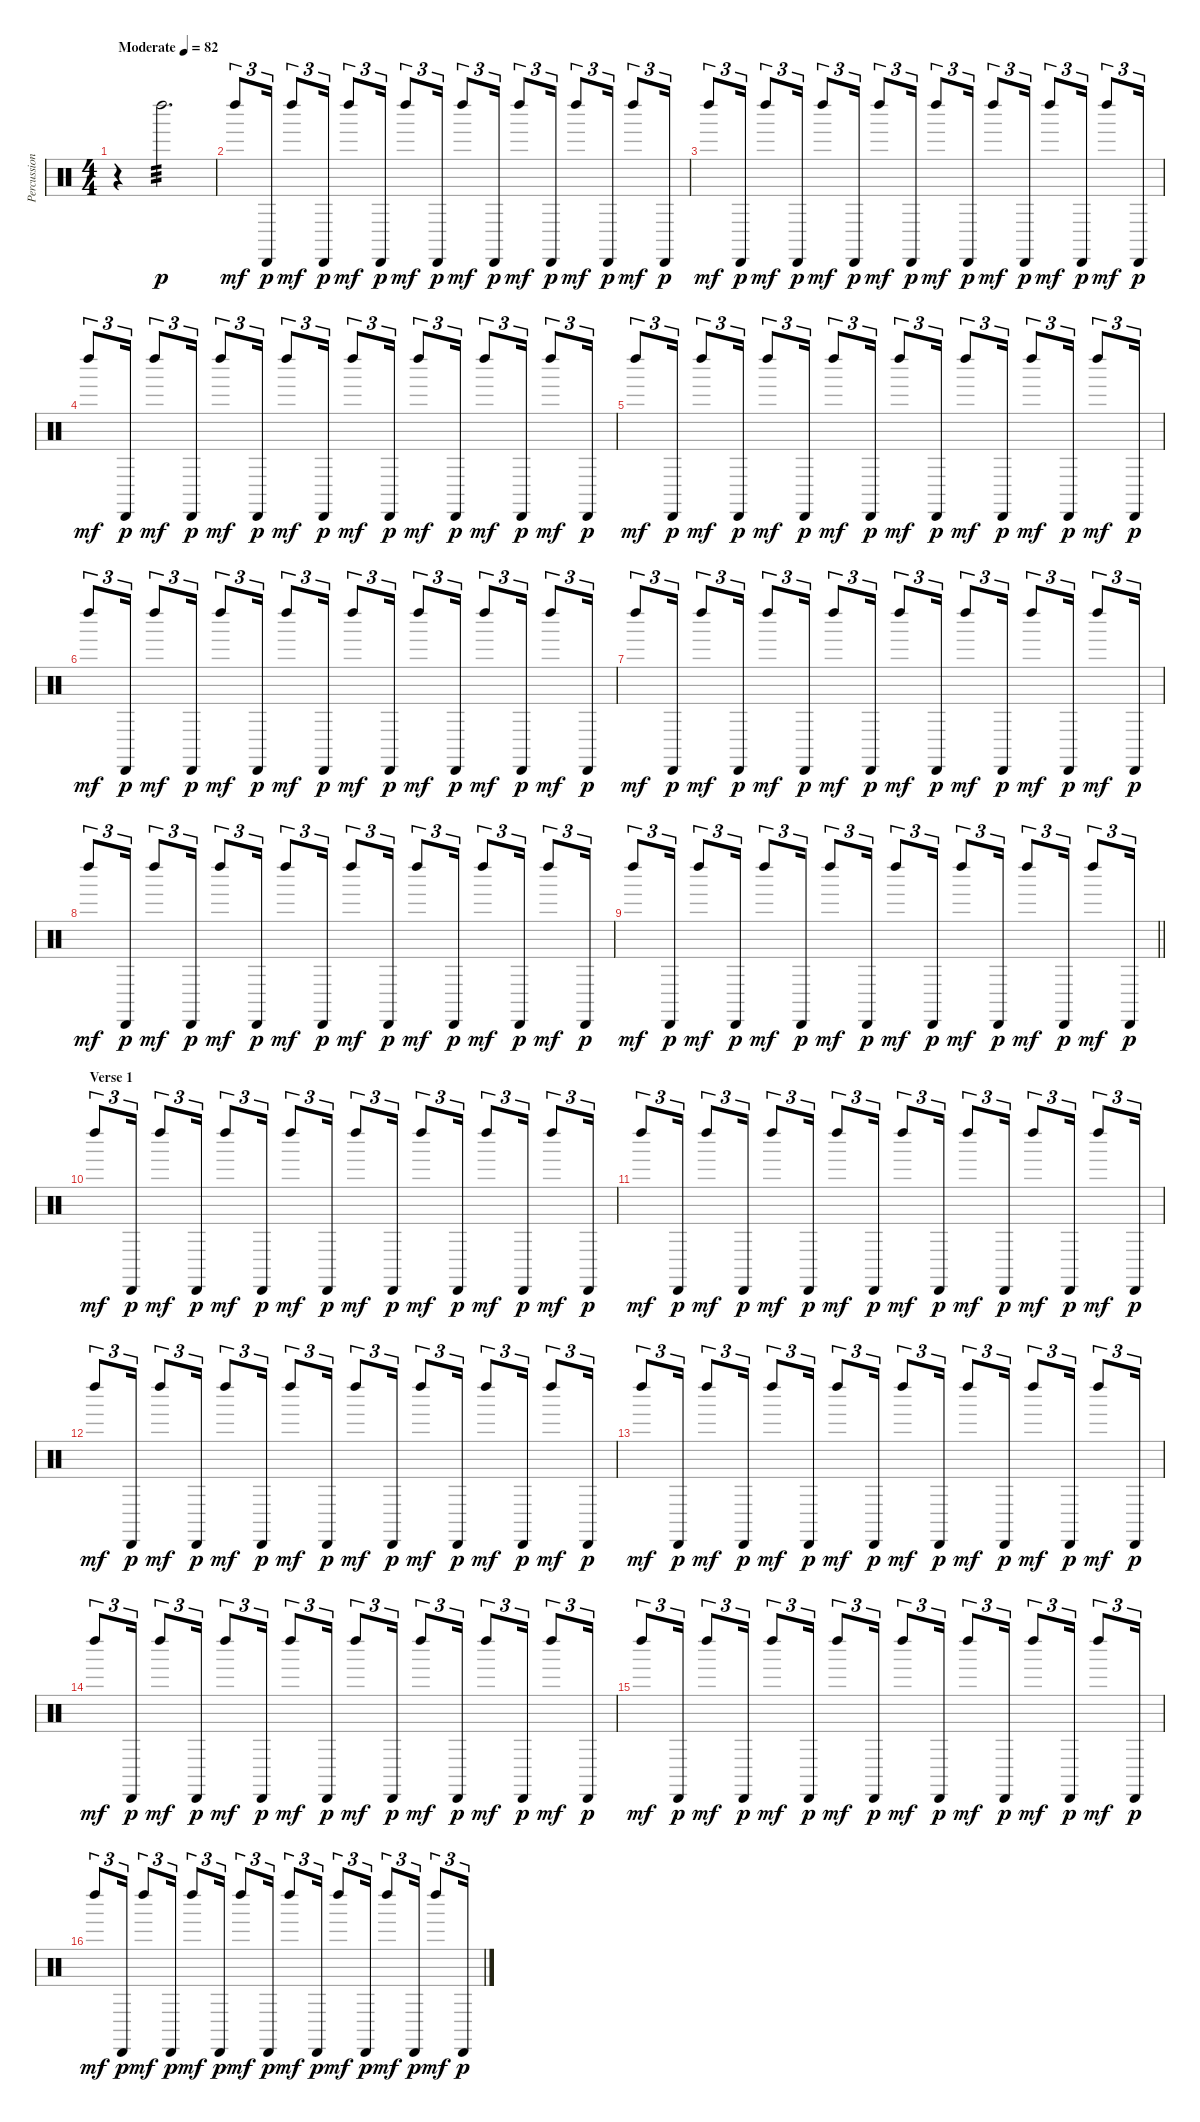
\track ("Percussion" "Percussion") {instrument percussion}
\staff {score}
\articulation defaults
\ts (4 4)
\tempo (82 "Moderate")
\clef neutral
\ks c
r.4{dy p volume 0} "Left Maraca (hit)".2{d tp 3 volume 16} |
"Left Maraca (hit)".8{tu (3 2) dy mf} "Cabasa (hit)".16{tu (3 2) dy p} "Left Maraca (hit)".8{tu (3 2) dy mf} "Cabasa (hit)".16{tu (3 2) dy p} "Left Maraca (hit)".8{tu (3 2) dy mf} "Cabasa (hit)".16{tu (3 2) dy p} "Left Maraca (hit)".8{tu (3 2) dy mf} "Cabasa (hit)".16{tu (3 2) dy p} "Left Maraca (hit)".8{tu (3 2) dy mf} "Cabasa (hit)".16{tu (3 2) dy p} "Left Maraca (hit)".8{tu (3 2) dy mf} "Cabasa (hit)".16{tu (3 2) dy p} "Left Maraca (hit)".8{tu (3 2) dy mf} "Cabasa (hit)".16{tu (3 2) dy p} "Left Maraca (hit)".8{tu (3 2) dy mf} "Cabasa (hit)".16{tu (3 2) dy p} |
"Left Maraca (hit)".8{tu (3 2) dy mf} "Cabasa (hit)".16{tu (3 2) dy p} "Left Maraca (hit)".8{tu (3 2) dy mf} "Cabasa (hit)".16{tu (3 2) dy p} "Left Maraca (hit)".8{tu (3 2) dy mf} "Cabasa (hit)".16{tu (3 2) dy p} "Left Maraca (hit)".8{tu (3 2) dy mf} "Cabasa (hit)".16{tu (3 2) dy p} "Left Maraca (hit)".8{tu (3 2) dy mf} "Cabasa (hit)".16{tu (3 2) dy p} "Left Maraca (hit)".8{tu (3 2) dy mf} "Cabasa (hit)".16{tu (3 2) dy p} "Left Maraca (hit)".8{tu (3 2) dy mf} "Cabasa (hit)".16{tu (3 2) dy p} "Left Maraca (hit)".8{tu (3 2) dy mf} "Cabasa (hit)".16{tu (3 2) dy p} |
"Left Maraca (hit)".8{tu (3 2) dy mf} "Cabasa (hit)".16{tu (3 2) dy p} "Left Maraca (hit)".8{tu (3 2) dy mf} "Cabasa (hit)".16{tu (3 2) dy p} "Left Maraca (hit)".8{tu (3 2) dy mf} "Cabasa (hit)".16{tu (3 2) dy p} "Left Maraca (hit)".8{tu (3 2) dy mf} "Cabasa (hit)".16{tu (3 2) dy p} "Left Maraca (hit)".8{tu (3 2) dy mf} "Cabasa (hit)".16{tu (3 2) dy p} "Left Maraca (hit)".8{tu (3 2) dy mf} "Cabasa (hit)".16{tu (3 2) dy p} "Left Maraca (hit)".8{tu (3 2) dy mf} "Cabasa (hit)".16{tu (3 2) dy p} "Left Maraca (hit)".8{tu (3 2) dy mf} "Cabasa (hit)".16{tu (3 2) dy p} |
"Left Maraca (hit)".8{tu (3 2) dy mf} "Cabasa (hit)".16{tu (3 2) dy p} "Left Maraca (hit)".8{tu (3 2) dy mf} "Cabasa (hit)".16{tu (3 2) dy p} "Left Maraca (hit)".8{tu (3 2) dy mf} "Cabasa (hit)".16{tu (3 2) dy p} "Left Maraca (hit)".8{tu (3 2) dy mf} "Cabasa (hit)".16{tu (3 2) dy p} "Left Maraca (hit)".8{tu (3 2) dy mf} "Cabasa (hit)".16{tu (3 2) dy p} "Left Maraca (hit)".8{tu (3 2) dy mf} "Cabasa (hit)".16{tu (3 2) dy p} "Left Maraca (hit)".8{tu (3 2) dy mf} "Cabasa (hit)".16{tu (3 2) dy p} "Left Maraca (hit)".8{tu (3 2) dy mf} "Cabasa (hit)".16{tu (3 2) dy p} |
"Left Maraca (hit)".8{tu (3 2) dy mf} "Cabasa (hit)".16{tu (3 2) dy p} "Left Maraca (hit)".8{tu (3 2) dy mf} "Cabasa (hit)".16{tu (3 2) dy p} "Left Maraca (hit)".8{tu (3 2) dy mf} "Cabasa (hit)".16{tu (3 2) dy p} "Left Maraca (hit)".8{tu (3 2) dy mf} "Cabasa (hit)".16{tu (3 2) dy p} "Left Maraca (hit)".8{tu (3 2) dy mf} "Cabasa (hit)".16{tu (3 2) dy p} "Left Maraca (hit)".8{tu (3 2) dy mf} "Cabasa (hit)".16{tu (3 2) dy p} "Left Maraca (hit)".8{tu (3 2) dy mf} "Cabasa (hit)".16{tu (3 2) dy p} "Left Maraca (hit)".8{tu (3 2) dy mf} "Cabasa (hit)".16{tu (3 2) dy p} |
"Left Maraca (hit)".8{tu (3 2) dy mf} "Cabasa (hit)".16{tu (3 2) dy p} "Left Maraca (hit)".8{tu (3 2) dy mf} "Cabasa (hit)".16{tu (3 2) dy p} "Left Maraca (hit)".8{tu (3 2) dy mf} "Cabasa (hit)".16{tu (3 2) dy p} "Left Maraca (hit)".8{tu (3 2) dy mf} "Cabasa (hit)".16{tu (3 2) dy p} "Left Maraca (hit)".8{tu (3 2) dy mf} "Cabasa (hit)".16{tu (3 2) dy p} "Left Maraca (hit)".8{tu (3 2) dy mf} "Cabasa (hit)".16{tu (3 2) dy p} "Left Maraca (hit)".8{tu (3 2) dy mf} "Cabasa (hit)".16{tu (3 2) dy p} "Left Maraca (hit)".8{tu (3 2) dy mf} "Cabasa (hit)".16{tu (3 2) dy p} |
"Left Maraca (hit)".8{tu (3 2) dy mf} "Cabasa (hit)".16{tu (3 2) dy p} "Left Maraca (hit)".8{tu (3 2) dy mf} "Cabasa (hit)".16{tu (3 2) dy p} "Left Maraca (hit)".8{tu (3 2) dy mf} "Cabasa (hit)".16{tu (3 2) dy p} "Left Maraca (hit)".8{tu (3 2) dy mf} "Cabasa (hit)".16{tu (3 2) dy p} "Left Maraca (hit)".8{tu (3 2) dy mf} "Cabasa (hit)".16{tu (3 2) dy p} "Left Maraca (hit)".8{tu (3 2) dy mf} "Cabasa (hit)".16{tu (3 2) dy p} "Left Maraca (hit)".8{tu (3 2) dy mf} "Cabasa (hit)".16{tu (3 2) dy p} "Left Maraca (hit)".8{tu (3 2) dy mf} "Cabasa (hit)".16{tu (3 2) dy p} |
\barLineRight lightlight "Left Maraca (hit)".8{tu (3 2) dy mf} "Cabasa (hit)".16{tu (3 2) dy p} "Left Maraca (hit)".8{tu (3 2) dy mf} "Cabasa (hit)".16{tu (3 2) dy p} "Left Maraca (hit)".8{tu (3 2) dy mf} "Cabasa (hit)".16{tu (3 2) dy p} "Left Maraca (hit)".8{tu (3 2) dy mf} "Cabasa (hit)".16{tu (3 2) dy p} "Left Maraca (hit)".8{tu (3 2) dy mf} "Cabasa (hit)".16{tu (3 2) dy p} "Left Maraca (hit)".8{tu (3 2) dy mf} "Cabasa (hit)".16{tu (3 2) dy p} "Left Maraca (hit)".8{tu (3 2) dy mf} "Cabasa (hit)".16{tu (3 2) dy p} "Left Maraca (hit)".8{tu (3 2) dy mf} "Cabasa (hit)".16{tu (3 2) dy p}
|
\section ("" "Verse 1")
"Left Maraca (hit)".8{tu (3 2) dy mf} "Cabasa (hit)".16{tu (3 2) dy p} "Left Maraca (hit)".8{tu (3 2) dy mf} "Cabasa (hit)".16{tu (3 2) dy p} "Left Maraca (hit)".8{tu (3 2) dy mf} "Cabasa (hit)".16{tu (3 2) dy p} "Left Maraca (hit)".8{tu (3 2) dy mf} "Cabasa (hit)".16{tu (3 2) dy p} "Left Maraca (hit)".8{tu (3 2) dy mf} "Cabasa (hit)".16{tu (3 2) dy p} "Left Maraca (hit)".8{tu (3 2) dy mf} "Cabasa (hit)".16{tu (3 2) dy p} "Left Maraca (hit)".8{tu (3 2) dy mf} "Cabasa (hit)".16{tu (3 2) dy p} "Left Maraca (hit)".8{tu (3 2) dy mf} "Cabasa (hit)".16{tu (3 2) dy p} |
"Left Maraca (hit)".8{tu (3 2) dy mf} "Cabasa (hit)".16{tu (3 2) dy p} "Left Maraca (hit)".8{tu (3 2) dy mf} "Cabasa (hit)".16{tu (3 2) dy p} "Left Maraca (hit)".8{tu (3 2) dy mf} "Cabasa (hit)".16{tu (3 2) dy p} "Left Maraca (hit)".8{tu (3 2) dy mf} "Cabasa (hit)".16{tu (3 2) dy p} "Left Maraca (hit)".8{tu (3 2) dy mf} "Cabasa (hit)".16{tu (3 2) dy p} "Left Maraca (hit)".8{tu (3 2) dy mf} "Cabasa (hit)".16{tu (3 2) dy p} "Left Maraca (hit)".8{tu (3 2) dy mf} "Cabasa (hit)".16{tu (3 2) dy p} "Left Maraca (hit)".8{tu (3 2) dy mf} "Cabasa (hit)".16{tu (3 2) dy p} |
"Left Maraca (hit)".8{tu (3 2) dy mf} "Cabasa (hit)".16{tu (3 2) dy p} "Left Maraca (hit)".8{tu (3 2) dy mf} "Cabasa (hit)".16{tu (3 2) dy p} "Left Maraca (hit)".8{tu (3 2) dy mf} "Cabasa (hit)".16{tu (3 2) dy p} "Left Maraca (hit)".8{tu (3 2) dy mf} "Cabasa (hit)".16{tu (3 2) dy p} "Left Maraca (hit)".8{tu (3 2) dy mf} "Cabasa (hit)".16{tu (3 2) dy p} "Left Maraca (hit)".8{tu (3 2) dy mf} "Cabasa (hit)".16{tu (3 2) dy p} "Left Maraca (hit)".8{tu (3 2) dy mf} "Cabasa (hit)".16{tu (3 2) dy p} "Left Maraca (hit)".8{tu (3 2) dy mf} "Cabasa (hit)".16{tu (3 2) dy p} |
"Left Maraca (hit)".8{tu (3 2) dy mf} "Cabasa (hit)".16{tu (3 2) dy p} "Left Maraca (hit)".8{tu (3 2) dy mf} "Cabasa (hit)".16{tu (3 2) dy p} "Left Maraca (hit)".8{tu (3 2) dy mf} "Cabasa (hit)".16{tu (3 2) dy p} "Left Maraca (hit)".8{tu (3 2) dy mf} "Cabasa (hit)".16{tu (3 2) dy p} "Left Maraca (hit)".8{tu (3 2) dy mf} "Cabasa (hit)".16{tu (3 2) dy p} "Left Maraca (hit)".8{tu (3 2) dy mf} "Cabasa (hit)".16{tu (3 2) dy p} "Left Maraca (hit)".8{tu (3 2) dy mf} "Cabasa (hit)".16{tu (3 2) dy p} "Left Maraca (hit)".8{tu (3 2) dy mf} "Cabasa (hit)".16{tu (3 2) dy p} |
"Left Maraca (hit)".8{tu (3 2) dy mf} "Cabasa (hit)".16{tu (3 2) dy p} "Left Maraca (hit)".8{tu (3 2) dy mf} "Cabasa (hit)".16{tu (3 2) dy p} "Left Maraca (hit)".8{tu (3 2) dy mf} "Cabasa (hit)".16{tu (3 2) dy p} "Left Maraca (hit)".8{tu (3 2) dy mf} "Cabasa (hit)".16{tu (3 2) dy p} "Left Maraca (hit)".8{tu (3 2) dy mf} "Cabasa (hit)".16{tu (3 2) dy p} "Left Maraca (hit)".8{tu (3 2) dy mf} "Cabasa (hit)".16{tu (3 2) dy p} "Left Maraca (hit)".8{tu (3 2) dy mf} "Cabasa (hit)".16{tu (3 2) dy p} "Left Maraca (hit)".8{tu (3 2) dy mf} "Cabasa (hit)".16{tu (3 2) dy p} |
"Left Maraca (hit)".8{tu (3 2) dy mf} "Cabasa (hit)".16{tu (3 2) dy p} "Left Maraca (hit)".8{tu (3 2) dy mf} "Cabasa (hit)".16{tu (3 2) dy p} "Left Maraca (hit)".8{tu (3 2) dy mf} "Cabasa (hit)".16{tu (3 2) dy p} "Left Maraca (hit)".8{tu (3 2) dy mf} "Cabasa (hit)".16{tu (3 2) dy p} "Left Maraca (hit)".8{tu (3 2) dy mf} "Cabasa (hit)".16{tu (3 2) dy p} "Left Maraca (hit)".8{tu (3 2) dy mf} "Cabasa (hit)".16{tu (3 2) dy p} "Left Maraca (hit)".8{tu (3 2) dy mf} "Cabasa (hit)".16{tu (3 2) dy p} "Left Maraca (hit)".8{tu (3 2) dy mf} "Cabasa (hit)".16{tu (3 2) dy p} |
"Left Maraca (hit)".8{tu (3 2) dy mf} "Cabasa (hit)".16{tu (3 2) dy p} "Left Maraca (hit)".8{tu (3 2) dy mf} "Cabasa (hit)".16{tu (3 2) dy p} "Left Maraca (hit)".8{tu (3 2) dy mf} "Cabasa (hit)".16{tu (3 2) dy p} "Left Maraca (hit)".8{tu (3 2) dy mf} "Cabasa (hit)".16{tu (3 2) dy p} "Left Maraca (hit)".8{tu (3 2) dy mf} "Cabasa (hit)".16{tu (3 2) dy p} "Left Maraca (hit)".8{tu (3 2) dy mf} "Cabasa (hit)".16{tu (3 2) dy p} "Left Maraca (hit)".8{tu (3 2) dy mf} "Cabasa (hit)".16{tu (3 2) dy p} "Left Maraca (hit)".8{tu (3 2) dy mf} "Cabasa (hit)".16{tu (3 2) dy p}
